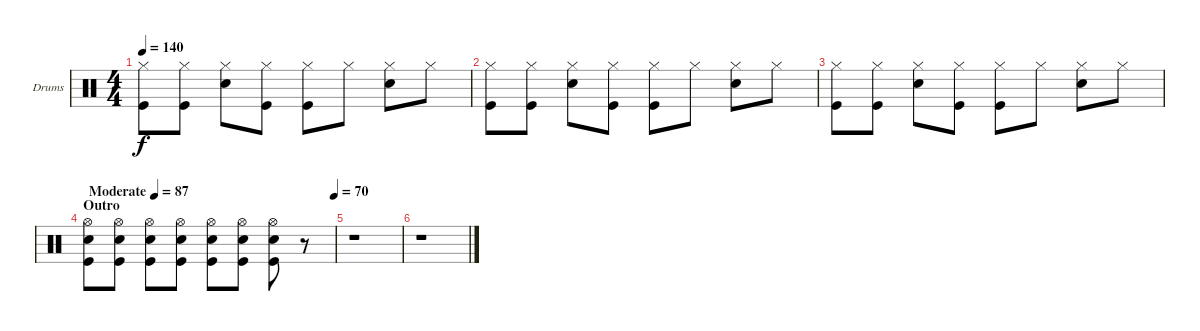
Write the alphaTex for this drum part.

\bracketExtendMode groupsimilarinstruments
\firstSystemTrackNameOrientation horizontal
\otherSystemsTrackNameOrientation horizontal
\track ("Fabrizio Moretti" "Drums") {instrument percussion}
\staff {score}
\articulation defaults
\ts (4 4)
\tempo 140
\clef neutral
\ks aminor
("Kick (hit)" "Hi-Hat (closed)").8{dy f} ("Kick (hit)" "Hi-Hat (closed)").8 ("Snare (hit) 2" "Hi-Hat (closed)").8 ("Kick (hit)" "Hi-Hat (closed)").8 ("Kick (hit)" "Hi-Hat (closed)").8 "Hi-Hat (closed)".8 ("Snare (hit) 2" "Hi-Hat (closed)").8 "Hi-Hat (closed)".8 |
("Kick (hit)" "Hi-Hat (closed)").8 ("Kick (hit)" "Hi-Hat (closed)").8 ("Snare (hit) 2" "Hi-Hat (closed)").8 ("Kick (hit)" "Hi-Hat (closed)").8 ("Kick (hit)" "Hi-Hat (closed)").8 "Hi-Hat (closed)".8 ("Snare (hit) 2" "Hi-Hat (closed)").8 "Hi-Hat (closed)".8 |
("Kick (hit)" "Hi-Hat (closed)").8 ("Kick (hit)" "Hi-Hat (closed)").8 ("Snare (hit) 2" "Hi-Hat (closed)").8 ("Kick (hit)" "Hi-Hat (closed)").8 ("Kick (hit)" "Hi-Hat (closed)").8 "Hi-Hat (closed)".8 ("Snare (hit) 2" "Hi-Hat (closed)").8 "Hi-Hat (closed)".8 |
\section ("" "Outro")
\tempo (87 "Moderate")
\tempo (70 1)
("Snare (hit) 2" "Hi-Hat (open)" "Kick (hit)").8 ("Snare (hit) 2" "Hi-Hat (open)" "Kick (hit)").8 ("Snare (hit) 2" "Hi-Hat (open)" "Kick (hit)").8 ("Snare (hit) 2" "Hi-Hat (open)" "Kick (hit)").8 ("Snare (hit) 2" "Hi-Hat (open)" "Kick (hit)").8 ("Snare (hit) 2" "Hi-Hat (open)" "Kick (hit)").8 ("Snare (hit) 2" "Hi-Hat (open)" "Kick (hit)").8 r.8 |
r.1 |
r.1
